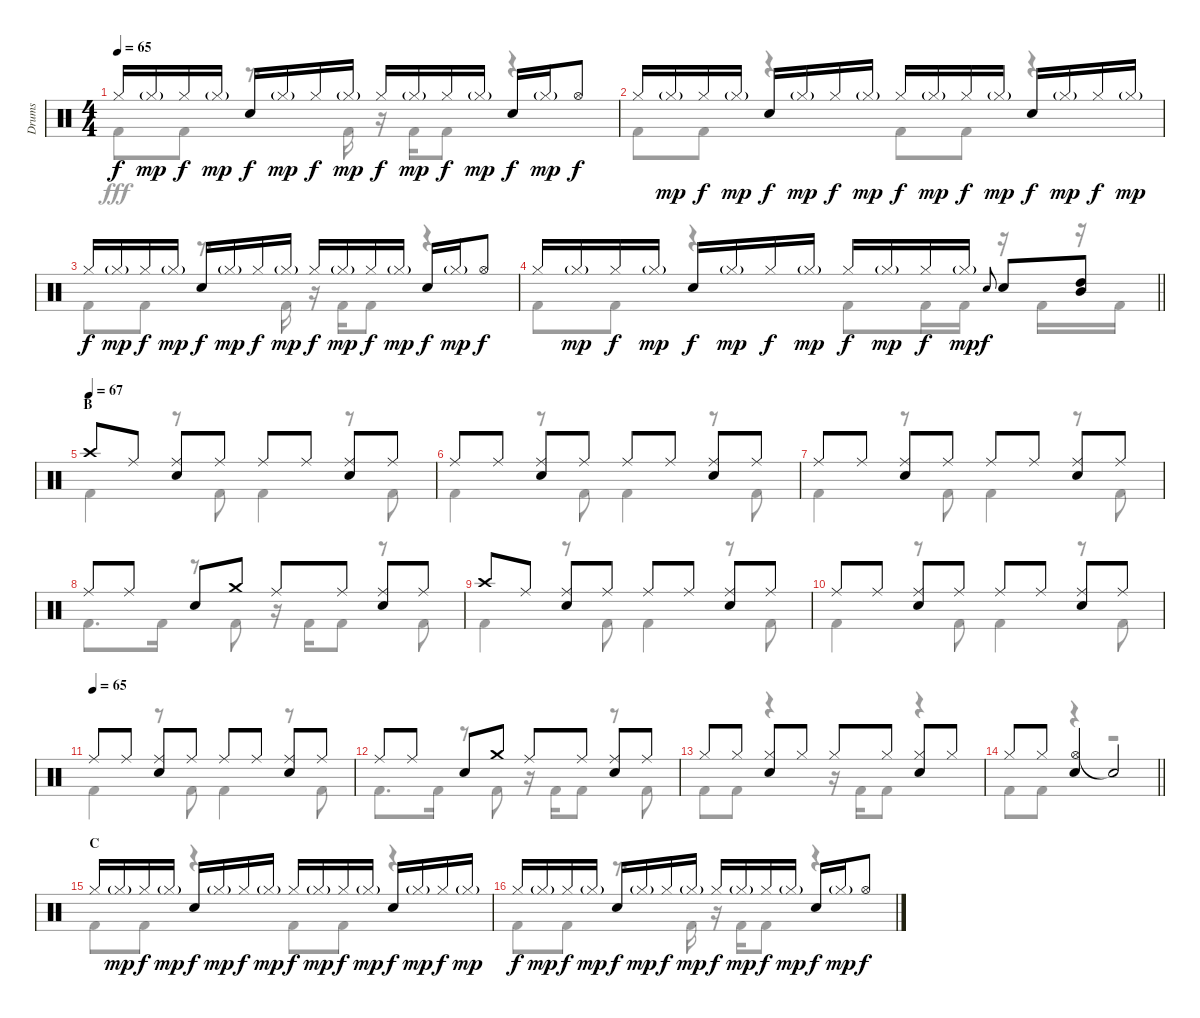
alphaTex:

\track ("Drums" "Drums") {instrument percussion}
\staff {score}
\articulation defaults
\voice
\ts (4 4)
\tempo 65
\clef neutral
\ks c "Hi-Hat (closed)".16{dy f} "Hi-Hat (closed)"{g}.16{dy mp} "Hi-Hat (closed)".16{dy f} "Hi-Hat (closed)"{g}.16{dy mp} "Snare (hit) 2".16{dy f} "Hi-Hat (closed)"{g}.16{dy mp} "Hi-Hat (closed)".16{dy f} "Hi-Hat (closed)"{g}.16{dy mp} "Hi-Hat (closed)".16{dy f} "Hi-Hat (closed)"{g}.16{dy mp} "Hi-Hat (closed)".16{dy f} "Hi-Hat (closed)"{g}.16{dy mp} "Snare (hit) 2".16{dy f} "Hi-Hat (closed)"{g}.16{dy mp} "Hi-Hat (open)".8{dy f}
|
"Hi-Hat (closed)".16 "Hi-Hat (closed)"{g}.16{dy mp} "Hi-Hat (closed)".16{dy f} "Hi-Hat (closed)"{g}.16{dy mp} "Snare (hit) 2".16{dy f} "Hi-Hat (closed)"{g}.16{dy mp} "Hi-Hat (closed)".16{dy f} "Hi-Hat (closed)"{g}.16{dy mp} "Hi-Hat (closed)".16{dy f} "Hi-Hat (closed)"{g}.16{dy mp} "Hi-Hat (closed)".16{dy f} "Hi-Hat (closed)"{g}.16{dy mp} "Snare (hit) 2".16{dy f} "Hi-Hat (closed)"{g}.16{dy mp} "Hi-Hat (closed)".16{dy f} "Hi-Hat (closed)"{g}.16{dy mp} |
"Hi-Hat (closed)".16{dy f} "Hi-Hat (closed)"{g}.16{dy mp} "Hi-Hat (closed)".16{dy f} "Hi-Hat (closed)"{g}.16{dy mp} "Snare (hit) 2".16{dy f} "Hi-Hat (closed)"{g}.16{dy mp} "Hi-Hat (closed)".16{dy f} "Hi-Hat (closed)"{g}.16{dy mp} "Hi-Hat (closed)".16{dy f} "Hi-Hat (closed)"{g}.16{dy mp} "Hi-Hat (closed)".16{dy f} "Hi-Hat (closed)"{g}.16{dy mp} "Snare (hit) 2".16{dy f} "Hi-Hat (closed)"{g}.16{dy mp} "Hi-Hat (open)".8{dy f} |
\barLineRight lightlight "Hi-Hat (closed)".16 "Hi-Hat (closed)"{g}.16{dy mp} "Hi-Hat (closed)".16{dy f} "Hi-Hat (closed)"{g}.16{dy mp} "Snare (hit) 2".16{dy f} "Hi-Hat (closed)"{g}.16{dy mp} "Hi-Hat (closed)".16{dy f} "Hi-Hat (closed)"{g}.16{dy mp} "Hi-Hat (closed)".16{dy f} "Hi-Hat (closed)"{g}.16{dy mp} "Hi-Hat (closed)".16{dy f} "Hi-Hat (closed)"{g}.16{dy mp} "Snare (hit) 2".8{gr onbeat dy f} "Snare (hit) 2".8
("High Tom (hit)" "Mid Tom (hit)").8 |
\section ("" "B")
\tempo (67)
"Crash high (hit)".8 "Ride (middle)".8 ("Ride (middle)" "Snare (hit) 2").8 "Ride (middle)".8 "Ride (middle)".8 "Ride (middle)".8 ("Ride (middle)" "Snare (hit) 2").8 "Ride (middle)".8 |
"Ride (middle)".8 "Ride (middle)".8 ("Ride (middle)" "Snare (hit) 2").8 "Ride (middle)".8 "Ride (middle)".8 "Ride (middle)".8 ("Ride (middle)" "Snare (hit) 2").8 "Ride (middle)".8 |
"Ride (middle)".8 "Ride (middle)".8 ("Ride (middle)" "Snare (hit) 2").8 "Ride (middle)".8 "Ride (middle)".8 "Ride (middle)".8 ("Ride (middle)" "Snare (hit) 2").8 "Ride (middle)".8 |
"Ride (middle)".8 "Ride (middle)".8 "Snare (hit) 2".8 "Crash medium (hit)".8 "Ride (middle)".8 "Ride (middle)".8 ("Ride (middle)" "Snare (hit) 2").8 "Ride (middle)".8 |
"Crash high (hit)".8 "Ride (middle)".8 ("Ride (middle)" "Snare (hit) 2").8 "Ride (middle)".8 "Ride (middle)".8 "Ride (middle)".8 ("Ride (middle)" "Snare (hit) 2").8 "Ride (middle)".8 |
"Ride (middle)".8 "Ride (middle)".8 ("Ride (middle)" "Snare (hit) 2").8 "Ride (middle)".8 "Ride (middle)".8 "Ride (middle)".8 ("Ride (middle)" "Snare (hit) 2").8 "Ride (middle)".8 |
\tempo (65)
"Ride (middle)".8 "Ride (middle)".8 ("Ride (middle)" "Snare (hit) 2").8 "Ride (middle)".8 "Ride (middle)".8 "Ride (middle)".8 ("Ride (middle)" "Snare (hit) 2").8 "Ride (middle)".8 |
"Ride (middle)".8 "Ride (middle)".8 "Snare (hit) 2".8 "Crash medium (hit)".8 "Ride (middle)".8 "Ride (middle)".8 ("Ride (middle)" "Snare (hit) 2").8 "Ride (middle)".8 |
"Hi-Hat (closed)".8 "Hi-Hat (closed)".8 ("Hi-Hat (closed)" "Snare (hit) 2").8 "Hi-Hat (closed)".8 "Hi-Hat (closed)".8 "Hi-Hat (closed)".8 ("Hi-Hat (closed)" "Snare (hit) 2").8 "Hi-Hat (closed)".8 |
\barLineRight lightlight "Hi-Hat (closed)".8 "Hi-Hat (closed)".8
("Hi-Hat (open)" "Snare (hit) 2").4 "Snare (hit)"{t}.2 |
\section ("" "C")
"Hi-Hat (closed)".16 "Hi-Hat (closed)"{g}.16{dy mp} "Hi-Hat (closed)".16{dy f} "Hi-Hat (closed)"{g}.16{dy mp} "Snare (hit) 2".16{dy f} "Hi-Hat (closed)"{g}.16{dy mp} "Hi-Hat (closed)".16{dy f} "Hi-Hat (closed)"{g}.16{dy mp} "Hi-Hat (closed)".16{dy f} "Hi-Hat (closed)"{g}.16{dy mp} "Hi-Hat (closed)".16{dy f} "Hi-Hat (closed)"{g}.16{dy mp} "Snare (hit) 2".16{dy f} "Hi-Hat (closed)"{g}.16{dy mp} "Hi-Hat (closed)".16{dy f} "Hi-Hat (closed)"{g}.16{dy mp} |
"Hi-Hat (closed)".16{dy f} "Hi-Hat (closed)"{g}.16{dy mp} "Hi-Hat (closed)".16{dy f} "Hi-Hat (closed)"{g}.16{dy mp} "Snare (hit) 2".16{dy f} "Hi-Hat (closed)"{g}.16{dy mp} "Hi-Hat (closed)".16{dy f} "Hi-Hat (closed)"{g}.16{dy mp} "Hi-Hat (closed)".16{dy f} "Hi-Hat (closed)"{g}.16{dy mp} "Hi-Hat (closed)".16{dy f} "Hi-Hat (closed)"{g}.16{dy mp} "Snare (hit) 2".16{dy f} "Hi-Hat (closed)"{g}.16{dy mp} "Hi-Hat (open)".8{dy f}
\voice
\clef neutral
\ottava regular
\simile none
\ks c "Kick (hit) 2".8{dy fff} "Kick (hit) 2".8
r.8{d} "Kick (hit) 2".16 r.16 "Kick (hit) 2".16 "Kick (hit) 2".8 r.4 |
"Kick (hit) 2".8 "Kick (hit) 2".8 r.4 "Kick (hit) 2".8 "Kick (hit) 2".8 r.4 |
"Kick (hit) 2".8 "Kick (hit) 2".8 r.8{d} "Kick (hit) 2".16 r.16 "Kick (hit) 2".16 "Kick (hit) 2".8 r.4 |
\barLineRight lightlight "Kick (hit) 2".8 "Kick (hit) 2".8
r.4 "Kick (hit) 2".8 "Kick (hit) 2".16 "Kick (hit) 2".16 r.16 "Kick (hit) 2".16 r.16 "Kick (hit) 2".16 |
"Kick (hit) 2".4 r.8 "Kick (hit) 2".8 "Kick (hit) 2".4 r.8 "Kick (hit) 2".8 |
"Kick (hit) 2".4 r.8 "Kick (hit) 2".8 "Kick (hit) 2".4 r.8 "Kick (hit) 2".8 |
"Kick (hit) 2".4 r.8 "Kick (hit) 2".8 "Kick (hit) 2".4 r.8 "Kick (hit) 2".8 |
"Kick (hit) 2".8{d} "Kick (hit) 2".16 r.8 "Kick (hit) 2".8 r.16 "Kick (hit) 2".16 "Kick (hit) 2".8 r.8 "Kick (hit) 2".8 |
"Kick (hit) 2".4 r.8 "Kick (hit) 2".8 "Kick (hit) 2".4 r.8 "Kick (hit) 2".8 |
"Kick (hit) 2".4 r.8 "Kick (hit) 2".8 "Kick (hit) 2".4 r.8 "Kick (hit) 2".8 |
"Kick (hit) 2".4 r.8 "Kick (hit) 2".8 "Kick (hit) 2".4 r.8 "Kick (hit) 2".8 |
"Kick (hit) 2".8{d} "Kick (hit) 2".16 r.8 "Kick (hit) 2".8 r.16 "Kick (hit) 2".16 "Kick (hit) 2".8 r.8 "Kick (hit) 2".8 |
"Kick (hit) 2".8 "Kick (hit) 2".8 r.4 r.16 "Kick (hit) 2".16 "Kick (hit) 2".8 r.4 |
\barLineRight lightlight "Kick (hit) 2".8 "Kick (hit) 2".8
r.4 r.2 |
"Kick (hit) 2".8 "Kick (hit) 2".8 r.4 "Kick (hit) 2".8 "Kick (hit) 2".8 r.4 |
"Kick (hit) 2".8 "Kick (hit) 2".8 r.8{d} "Kick (hit) 2".16 r.16 "Kick (hit) 2".16 "Kick (hit) 2".8 r.4
